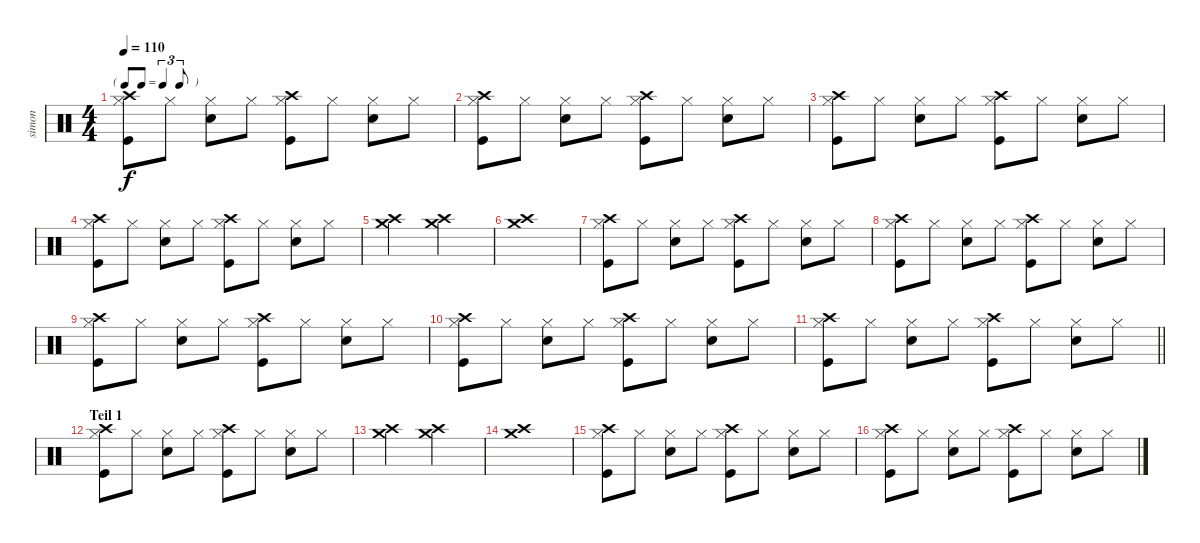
\track ("simon" "simon") {instrument percussion}
\staff {score}
\articulation defaults
\ts (4 4)
\tf triplet8th
\tempo 110
\clef neutral
\ks c
("Hi-Hat (closed)" "Kick (hit)" "Crash high (hit)").8{dy f} "Hi-Hat (closed)".8 ("Hi-Hat (closed)" "Snare (hit) 2").8 "Hi-Hat (closed)".8 ("Hi-Hat (closed)" "Kick (hit)" "Crash high (hit)").8 "Hi-Hat (closed)".8 ("Hi-Hat (closed)" "Snare (hit) 2").8 "Hi-Hat (closed)".8 |
("Hi-Hat (closed)" "Kick (hit)" "Crash high (hit)").8 "Hi-Hat (closed)".8 ("Hi-Hat (closed)" "Snare (hit) 2").8 "Hi-Hat (closed)".8 ("Hi-Hat (closed)" "Kick (hit)" "Crash high (hit)").8 "Hi-Hat (closed)".8 ("Hi-Hat (closed)" "Snare (hit) 2").8 "Hi-Hat (closed)".8 |
("Hi-Hat (closed)" "Kick (hit)" "Crash high (hit)").8 "Hi-Hat (closed)".8 ("Hi-Hat (closed)" "Snare (hit) 2").8 "Hi-Hat (closed)".8 ("Hi-Hat (closed)" "Kick (hit)" "Crash high (hit)").8 "Hi-Hat (closed)".8 ("Hi-Hat (closed)" "Snare (hit) 2").8 "Hi-Hat (closed)".8 |
("Hi-Hat (closed)" "Kick (hit)" "Crash high (hit)").8 "Hi-Hat (closed)".8 ("Hi-Hat (closed)" "Snare (hit) 2").8 "Hi-Hat (closed)".8 ("Hi-Hat (closed)" "Kick (hit)" "Crash high (hit)").8 "Hi-Hat (closed)".8 ("Hi-Hat (closed)" "Snare (hit) 2").8 "Hi-Hat (closed)".8 |
("Crash medium (hit)" "Crash high (hit)").2 ("Crash medium (hit)" "Crash high (hit)").2 |
("Crash high (hit)" "Crash medium (hit)").1 |
("Hi-Hat (closed)" "Kick (hit)" "Crash high (hit)").8 "Hi-Hat (closed)".8 ("Hi-Hat (closed)" "Snare (hit) 2").8 "Hi-Hat (closed)".8 ("Hi-Hat (closed)" "Kick (hit)" "Crash high (hit)").8 "Hi-Hat (closed)".8 ("Hi-Hat (closed)" "Snare (hit) 2").8 "Hi-Hat (closed)".8 |
("Hi-Hat (closed)" "Kick (hit)" "Crash high (hit)").8 "Hi-Hat (closed)".8 ("Hi-Hat (closed)" "Snare (hit) 2").8 "Hi-Hat (closed)".8 ("Hi-Hat (closed)" "Kick (hit)" "Crash high (hit)").8 "Hi-Hat (closed)".8 ("Hi-Hat (closed)" "Snare (hit) 2").8 "Hi-Hat (closed)".8 |
("Hi-Hat (closed)" "Kick (hit)" "Crash high (hit)").8 "Hi-Hat (closed)".8 ("Hi-Hat (closed)" "Snare (hit) 2").8 "Hi-Hat (closed)".8 ("Hi-Hat (closed)" "Kick (hit)" "Crash high (hit)").8 "Hi-Hat (closed)".8 ("Hi-Hat (closed)" "Snare (hit) 2").8 "Hi-Hat (closed)".8 |
("Hi-Hat (closed)" "Kick (hit)" "Crash high (hit)").8 "Hi-Hat (closed)".8 ("Hi-Hat (closed)" "Snare (hit) 2").8 "Hi-Hat (closed)".8 ("Hi-Hat (closed)" "Kick (hit)" "Crash high (hit)").8 "Hi-Hat (closed)".8 ("Hi-Hat (closed)" "Snare (hit) 2").8 "Hi-Hat (closed)".8 |
\barLineRight lightlight
("Hi-Hat (closed)" "Kick (hit)" "Crash high (hit)").8 "Hi-Hat (closed)".8 ("Hi-Hat (closed)" "Snare (hit) 2").8 "Hi-Hat (closed)".8 ("Hi-Hat (closed)" "Kick (hit)" "Crash high (hit)").8 "Hi-Hat (closed)".8 ("Hi-Hat (closed)" "Snare (hit) 2").8 "Hi-Hat (closed)".8 |
\section ("" "Teil 1")
("Hi-Hat (closed)" "Kick (hit)" "Crash high (hit)").8 "Hi-Hat (closed)".8 ("Hi-Hat (closed)" "Snare (hit) 2").8 "Hi-Hat (closed)".8 ("Hi-Hat (closed)" "Kick (hit)" "Crash high (hit)").8 "Hi-Hat (closed)".8 ("Hi-Hat (closed)" "Snare (hit) 2").8 "Hi-Hat (closed)".8 |
("Crash medium (hit)" "Crash high (hit)").2 ("Crash medium (hit)" "Crash high (hit)").2 |
("Crash high (hit)" "Crash medium (hit)").1 |
("Hi-Hat (closed)" "Kick (hit)" "Crash high (hit)").8 "Hi-Hat (closed)".8 ("Hi-Hat (closed)" "Snare (hit) 2").8 "Hi-Hat (closed)".8 ("Hi-Hat (closed)" "Kick (hit)" "Crash high (hit)").8 "Hi-Hat (closed)".8 ("Hi-Hat (closed)" "Snare (hit) 2").8 "Hi-Hat (closed)".8 |
("Hi-Hat (closed)" "Kick (hit)" "Crash high (hit)").8 "Hi-Hat (closed)".8 ("Hi-Hat (closed)" "Snare (hit) 2").8 "Hi-Hat (closed)".8 ("Hi-Hat (closed)" "Kick (hit)" "Crash high (hit)").8 "Hi-Hat (closed)".8 ("Hi-Hat (closed)" "Snare (hit) 2").8 "Hi-Hat (closed)".8
